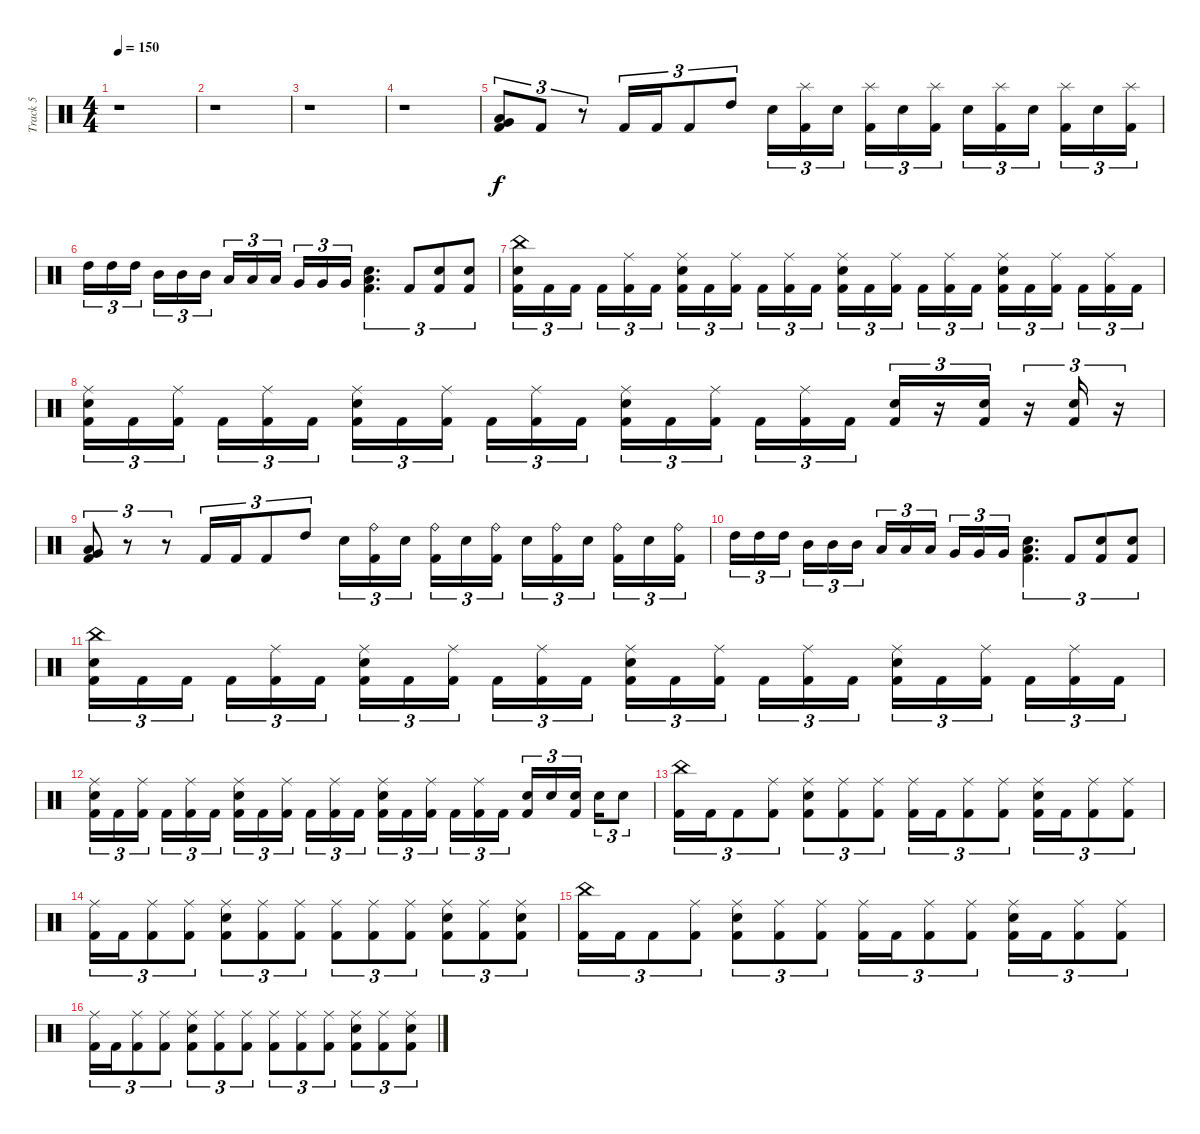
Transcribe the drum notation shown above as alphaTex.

\track ("Track 5" "Track 5") {instrument percussion}
\staff {score}
\articulation defaults
\ts (4 4)
\tempo 150
\clef neutral
\ks c
r.1{dy f} |
r.1 |
r.1 |
r.1 |
("Very Low Tom (hit)" "Low Floor Tom (hit)" "Kick (hit) 2").8{tu (3 2)} "Kick (hit) 2".8{tu (3 2)} r.8{tu (3 2)} "Kick (hit) 2".16{tu (3 2)} "Kick (hit) 2".16{tu (3 2)} "Kick (hit) 2".8{tu (3 2)} "High Tom (hit)".8{tu (3 2)} "Electric Snare (hit)".16{tu (3 2)} ("Splash (hit)" "Kick (hit) 2").16{tu (3 2)} "Electric Snare (hit)".16{tu (3 2)} ("Splash (hit)" "Kick (hit) 2").16{tu (3 2)} "Electric Snare (hit)".16{tu (3 2)} ("Splash (hit)" "Kick (hit) 2").16{tu (3 2)} "Electric Snare (hit)".16{tu (3 2)} ("Splash (hit)" "Kick (hit) 2").16{tu (3 2)} "Electric Snare (hit)".16{tu (3 2)} ("Splash (hit)" "Kick (hit) 2").16{tu (3 2)} "Electric Snare (hit)".16{tu (3 2)} ("Splash (hit)" "Kick (hit) 2").16{tu (3 2)} |
"High Tom (hit)".16{tu (3 2)} "High Tom (hit)".16{tu (3 2)} "High Tom (hit)".16{tu (3 2)} "Mid Tom (hit)".16{tu (3 2)} "Mid Tom (hit)".16{tu (3 2)} "Mid Tom (hit)".16{tu (3 2)} "Low Tom (hit)".16{tu (3 2)} "Low Tom (hit)".16{tu (3 2)} "Low Tom (hit)".16{tu (3 2)} "Very Low Tom (hit)".16{tu (3 2)} "Very Low Tom (hit)".16{tu (3 2)} "Very Low Tom (hit)".16{tu (3 2)} ("Low Floor Tom (hit)" "Electric Snare (hit)" "Kick (hit) 2").4{d tu (3 2)} "Kick (hit) 2".8{tu (3 2)} ("Electric Snare (hit)" "Kick (hit) 2").8{tu (3 2)} ("Electric Snare (hit)" "Kick (hit) 2").8{tu (3 2)} |
("China (hit)" "Electric Snare (hit)" "Kick (hit) 2").16{tu (3 2)} "Kick (hit) 2".16{tu (3 2)} "Kick (hit) 2".16{tu (3 2)} "Kick (hit) 2".16{tu (3 2)} ("Ride (middle)" "Kick (hit) 2").16{tu (3 2)} "Kick (hit) 2".16{tu (3 2)} ("Ride (middle)" "Electric Snare (hit)" "Kick (hit) 2").16{tu (3 2)} "Kick (hit) 2".16{tu (3 2)} ("Ride (middle)" "Kick (hit) 2").16{tu (3 2)} "Kick (hit) 2".16{tu (3 2)} ("Ride (middle)" "Kick (hit) 2").16{tu (3 2)} "Kick (hit) 2".16{tu (3 2)} ("Ride (middle)" "Electric Snare (hit)" "Kick (hit) 2").16{tu (3 2)} "Kick (hit) 2".16{tu (3 2)} ("Ride (middle)" "Kick (hit) 2").16{tu (3 2)} "Kick (hit) 2".16{tu (3 2)} ("Ride (middle)" "Kick (hit) 2").16{tu (3 2)} "Kick (hit) 2".16{tu (3 2)} ("Ride (middle)" "Electric Snare (hit)" "Kick (hit) 2").16{tu (3 2)} "Kick (hit) 2".16{tu (3 2)} ("Ride (middle)" "Kick (hit) 2").16{tu (3 2)} "Kick (hit) 2".16{tu (3 2)} ("Ride (middle)" "Kick (hit) 2").16{tu (3 2)} "Kick (hit) 2".16{tu (3 2)} |
("Ride (middle)" "Electric Snare (hit)" "Kick (hit) 2").16{tu (3 2)} "Kick (hit) 2".16{tu (3 2)} ("Ride (middle)" "Kick (hit) 2").16{tu (3 2)} "Kick (hit) 2".16{tu (3 2)} ("Ride (middle)" "Kick (hit) 2").16{tu (3 2)} "Kick (hit) 2".16{tu (3 2)} ("Ride (middle)" "Electric Snare (hit)" "Kick (hit) 2").16{tu (3 2)} "Kick (hit) 2".16{tu (3 2)} ("Ride (middle)" "Kick (hit) 2").16{tu (3 2)} "Kick (hit) 2".16{tu (3 2)} ("Ride (middle)" "Kick (hit) 2").16{tu (3 2)} "Kick (hit) 2".16{tu (3 2)} ("Ride (middle)" "Electric Snare (hit)" "Kick (hit) 2").16{tu (3 2)} "Kick (hit) 2".16{tu (3 2)} ("Ride (middle)" "Kick (hit) 2").16{tu (3 2)} "Kick (hit) 2".16{tu (3 2)} ("Ride (middle)" "Kick (hit) 2").16{tu (3 2)} "Kick (hit) 2".16{tu (3 2)} ("Electric Snare (hit)" "Kick (hit) 2").16{tu (3 2)} r.16{tu (3 2)} ("Electric Snare (hit)" "Kick (hit) 2").16{tu (3 2)} r.16{tu (3 2)} ("Electric Snare (hit)" "Kick (hit) 2").16{tu (3 2)} r.16{tu (3 2)} |
("Very Low Tom (hit)" "Low Floor Tom (hit)" "Kick (hit) 2").8{tu (3 2)} r.8{tu (3 2)} r.8{tu (3 2)} "Kick (hit) 2".16{tu (3 2)} "Kick (hit) 2".16{tu (3 2)} "Kick (hit) 2".8{tu (3 2)} "High Tom (hit)".8{tu (3 2)} "Electric Snare (hit)".16{tu (3 2)} ("Ride (bell)" "Kick (hit) 2").16{tu (3 2)} "Electric Snare (hit)".16{tu (3 2)} ("Ride (bell)" "Kick (hit) 2").16{tu (3 2)} "Electric Snare (hit)".16{tu (3 2)} ("Ride (bell)" "Kick (hit) 2").16{tu (3 2)} "Electric Snare (hit)".16{tu (3 2)} ("Ride (bell)" "Kick (hit) 2").16{tu (3 2)} "Electric Snare (hit)".16{tu (3 2)} ("Ride (bell)" "Kick (hit) 2").16{tu (3 2)} "Electric Snare (hit)".16{tu (3 2)} ("Ride (bell)" "Kick (hit) 2").16{tu (3 2)} |
"High Tom (hit)".16{tu (3 2)} "High Tom (hit)".16{tu (3 2)} "High Tom (hit)".16{tu (3 2)} "Mid Tom (hit)".16{tu (3 2)} "Mid Tom (hit)".16{tu (3 2)} "Mid Tom (hit)".16{tu (3 2)} "Low Tom (hit)".16{tu (3 2)} "Low Tom (hit)".16{tu (3 2)} "Low Tom (hit)".16{tu (3 2)} "Very Low Tom (hit)".16{tu (3 2)} "Very Low Tom (hit)".16{tu (3 2)} "Very Low Tom (hit)".16{tu (3 2)} ("Low Floor Tom (hit)" "Electric Snare (hit)" "Kick (hit) 2").4{d tu (3 2)} "Kick (hit) 2".8{tu (3 2)} ("Electric Snare (hit)" "Kick (hit) 2").8{tu (3 2)} ("Electric Snare (hit)" "Kick (hit) 2").8{tu (3 2)} |
("China (hit)" "Electric Snare (hit)" "Kick (hit) 2").16{tu (3 2)} "Kick (hit) 2".16{tu (3 2)} "Kick (hit) 2".16{tu (3 2)} "Kick (hit) 2".16{tu (3 2)} ("Ride (middle)" "Kick (hit) 2").16{tu (3 2)} "Kick (hit) 2".16{tu (3 2)} ("Ride (middle)" "Electric Snare (hit)" "Kick (hit) 2").16{tu (3 2)} "Kick (hit) 2".16{tu (3 2)} ("Ride (middle)" "Kick (hit) 2").16{tu (3 2)} "Kick (hit) 2".16{tu (3 2)} ("Ride (middle)" "Kick (hit) 2").16{tu (3 2)} "Kick (hit) 2".16{tu (3 2)} ("Ride (middle)" "Electric Snare (hit)" "Kick (hit) 2").16{tu (3 2)} "Kick (hit) 2".16{tu (3 2)} ("Ride (middle)" "Kick (hit) 2").16{tu (3 2)} "Kick (hit) 2".16{tu (3 2)} ("Ride (middle)" "Kick (hit) 2").16{tu (3 2)} "Kick (hit) 2".16{tu (3 2)} ("Ride (middle)" "Electric Snare (hit)" "Kick (hit) 2").16{tu (3 2)} "Kick (hit) 2".16{tu (3 2)} ("Ride (middle)" "Kick (hit) 2").16{tu (3 2)} "Kick (hit) 2".16{tu (3 2)} ("Ride (middle)" "Kick (hit) 2").16{tu (3 2)} "Kick (hit) 2".16{tu (3 2)} |
("Ride (middle)" "Electric Snare (hit)" "Kick (hit) 2").16{tu (3 2)} "Kick (hit) 2".16{tu (3 2)} ("Ride (middle)" "Kick (hit) 2").16{tu (3 2)} "Kick (hit) 2".16{tu (3 2)} ("Ride (middle)" "Kick (hit) 2").16{tu (3 2)} "Kick (hit) 2".16{tu (3 2)} ("Ride (middle)" "Electric Snare (hit)" "Kick (hit) 2").16{tu (3 2)} "Kick (hit) 2".16{tu (3 2)} ("Ride (middle)" "Kick (hit) 2").16{tu (3 2)} "Kick (hit) 2".16{tu (3 2)} ("Ride (middle)" "Kick (hit) 2").16{tu (3 2)} "Kick (hit) 2".16{tu (3 2)} ("Ride (middle)" "Electric Snare (hit)" "Kick (hit) 2").16{tu (3 2)} "Kick (hit) 2".16{tu (3 2)} ("Ride (middle)" "Kick (hit) 2").16{tu (3 2)} "Kick (hit) 2".16{tu (3 2)} ("Ride (middle)" "Kick (hit) 2").16{tu (3 2)} "Kick (hit) 2".16{tu (3 2)} ("Electric Snare (hit)" "Kick (hit) 2").16{tu (3 2)} "Electric Snare (hit)".16{tu (3 2)} ("Electric Snare (hit)" "Kick (hit) 2").16{tu (3 2)} "Electric Snare (hit)".16{tu (3 2)} "Electric Snare (hit)".8{tu (3 2)} |
("China (hit)" "Kick (hit) 2").16{tu (3 2)} "Kick (hit) 2".16{tu (3 2)} "Kick (hit) 2".8{tu (3 2)} ("Ride (middle)" "Kick (hit) 2").8{tu (3 2)} ("Ride (middle)" "Electric Snare (hit)" "Kick (hit) 2").8{tu (3 2)} ("Ride (middle)" "Kick (hit) 2").8{tu (3 2)} ("Ride (middle)" "Kick (hit) 2").8{tu (3 2)} ("Ride (middle)" "Kick (hit) 2").16{tu (3 2)} "Kick (hit) 2".16{tu (3 2)} ("Ride (middle)" "Kick (hit) 2").8{tu (3 2)} ("Ride (middle)" "Kick (hit) 2").8{tu (3 2)} ("Ride (middle)" "Electric Snare (hit)" "Kick (hit) 2").16{tu (3 2)} "Kick (hit) 2".16{tu (3 2)} ("Ride (middle)" "Kick (hit) 2").8{tu (3 2)} ("Ride (middle)" "Kick (hit) 2").8{tu (3 2)} |
("Ride (middle)" "Kick (hit) 2").16{tu (3 2)} "Kick (hit) 2".16{tu (3 2)} ("Ride (middle)" "Kick (hit) 2").8{tu (3 2)} ("Ride (middle)" "Kick (hit) 2").8{tu (3 2)} ("Ride (middle)" "Electric Snare (hit)" "Kick (hit) 2").8{tu (3 2)} ("Ride (middle)" "Kick (hit) 2").8{tu (3 2)} ("Ride (middle)" "Kick (hit) 2").8{tu (3 2)} ("Ride (middle)" "Kick (hit) 2").8{tu (3 2)} ("Ride (middle)" "Kick (hit) 2").8{tu (3 2)} ("Ride (middle)" "Kick (hit) 2").8{tu (3 2)} ("Ride (middle)" "Electric Snare (hit)" "Kick (hit) 2").8{tu (3 2)} ("Ride (middle)" "Kick (hit) 2").8{tu (3 2)} ("Ride (middle)" "Electric Snare (hit)" "Kick (hit) 2").8{tu (3 2)} |
("China (hit)" "Kick (hit) 2").16{tu (3 2)} "Kick (hit) 2".16{tu (3 2)} "Kick (hit) 2".8{tu (3 2)} ("Ride (middle)" "Kick (hit) 2").8{tu (3 2)} ("Ride (middle)" "Electric Snare (hit)" "Kick (hit) 2").8{tu (3 2)} ("Ride (middle)" "Kick (hit) 2").8{tu (3 2)} ("Ride (middle)" "Kick (hit) 2").8{tu (3 2)} ("Ride (middle)" "Kick (hit) 2").16{tu (3 2)} "Kick (hit) 2".16{tu (3 2)} ("Ride (middle)" "Kick (hit) 2").8{tu (3 2)} ("Ride (middle)" "Kick (hit) 2").8{tu (3 2)} ("Ride (middle)" "Electric Snare (hit)" "Kick (hit) 2").16{tu (3 2)} "Kick (hit) 2".16{tu (3 2)} ("Ride (middle)" "Kick (hit) 2").8{tu (3 2)} ("Ride (middle)" "Kick (hit) 2").8{tu (3 2)} |
("Ride (middle)" "Kick (hit) 2").16{tu (3 2)} "Kick (hit) 2".16{tu (3 2)} ("Ride (middle)" "Kick (hit) 2").8{tu (3 2)} ("Ride (middle)" "Kick (hit) 2").8{tu (3 2)} ("Ride (middle)" "Electric Snare (hit)" "Kick (hit) 2").8{tu (3 2)} ("Ride (middle)" "Kick (hit) 2").8{tu (3 2)} ("Ride (middle)" "Kick (hit) 2").8{tu (3 2)} ("Ride (middle)" "Kick (hit) 2").8{tu (3 2)} ("Ride (middle)" "Kick (hit) 2").8{tu (3 2)} ("Ride (middle)" "Kick (hit) 2").8{tu (3 2)} ("Ride (middle)" "Electric Snare (hit)" "Kick (hit) 2").8{tu (3 2)} ("Ride (middle)" "Kick (hit) 2").8{tu (3 2)} ("Ride (middle)" "Electric Snare (hit)" "Kick (hit) 2").8{tu (3 2)}
